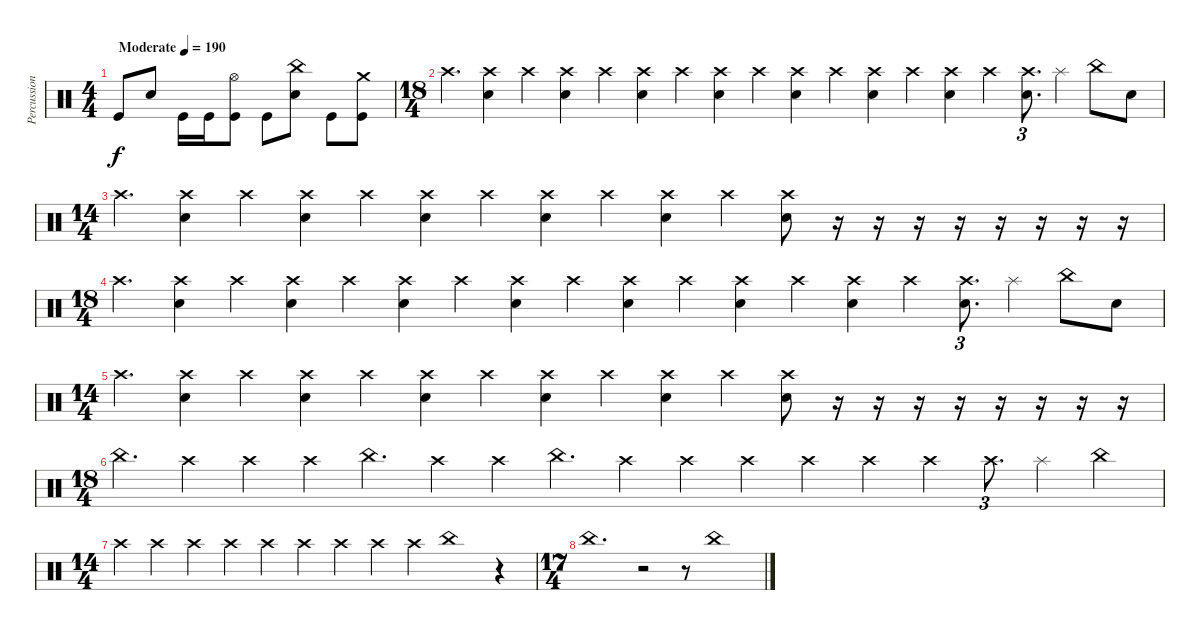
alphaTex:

\track ("Percussion" "Percussion") {instrument percussion}
\staff {score}
\articulation defaults
\ts (4 4)
\tempo (190 "Moderate")
\clef neutral
\ks c "Kick (hit)".8{dy f} "Electric Snare (hit)".8 "Kick (hit)".16 "Kick (hit)".16
("Hi-Hat (open)" "Kick (hit)").8 "Kick (hit)".8 ("China (hit)" "Electric Snare (hit)").8 "Kick (hit)".8 ("Crash medium (hit)" "Kick (hit)").8 |
\ts (18 4)
"Crash high (hit)".4{d} ("Crash high (hit)" "Electric Snare (hit)").4 "Crash high (hit)".4 ("Crash high (hit)" "Electric Snare (hit)").4 "Crash high (hit)".4 ("Crash high (hit)" "Electric Snare (hit)").4 "Crash high (hit)".4 ("Crash high (hit)" "Electric Snare (hit)").4 "Crash high (hit)".4 ("Crash high (hit)" "Electric Snare (hit)").4 "Crash high (hit)".4 ("Crash high (hit)" "Electric Snare (hit)").4 "Crash high (hit)".4 ("Crash high (hit)" "Electric Snare (hit)").4 "Crash high (hit)".4 ("Crash high (hit)" "Electric Snare (hit)").8{d tu (3 2)} "Splash (hit)".4 "China (hit)".8 "Electric Snare (hit)".8 |
\ts (14 4)
"Crash high (hit)".4{d} ("Crash high (hit)" "Electric Snare (hit)").4 "Crash high (hit)".4 ("Crash high (hit)" "Electric Snare (hit)").4 "Crash high (hit)".4 ("Crash high (hit)" "Electric Snare (hit)").4 "Crash high (hit)".4 ("Crash high (hit)" "Electric Snare (hit)").4 "Crash high (hit)".4 ("Crash high (hit)" "Electric Snare (hit)").4 "Crash high (hit)".4 ("Crash high (hit)" "Electric Snare (hit)").8 r.16 r.16 r.16 r.16 r.16 r.16 r.16 r.16 |
\ts (18 4)
"Crash high (hit)".4{d} ("Crash high (hit)" "Electric Snare (hit)").4 "Crash high (hit)".4 ("Crash high (hit)" "Electric Snare (hit)").4 "Crash high (hit)".4 ("Crash high (hit)" "Electric Snare (hit)").4 "Crash high (hit)".4 ("Crash high (hit)" "Electric Snare (hit)").4 "Crash high (hit)".4 ("Crash high (hit)" "Electric Snare (hit)").4 "Crash high (hit)".4 ("Crash high (hit)" "Electric Snare (hit)").4 "Crash high (hit)".4 ("Crash high (hit)" "Electric Snare (hit)").4 "Crash high (hit)".4 ("Crash high (hit)" "Electric Snare (hit)").8{d tu (3 2)} "Splash (hit)".4 "China (hit)".8 "Electric Snare (hit)".8 |
\ts (14 4)
"Crash high (hit)".4{d} ("Crash high (hit)" "Electric Snare (hit)").4 "Crash high (hit)".4 ("Crash high (hit)" "Electric Snare (hit)").4 "Crash high (hit)".4 ("Crash high (hit)" "Electric Snare (hit)").4 "Crash high (hit)".4 ("Crash high (hit)" "Electric Snare (hit)").4 "Crash high (hit)".4 ("Crash high (hit)" "Electric Snare (hit)").4 "Crash high (hit)".4 ("Crash high (hit)" "Electric Snare (hit)").8 r.16 r.16 r.16 r.16 r.16 r.16 r.16 r.16 |
\ts (18 4)
"China (hit)".4{d} "Crash high (hit)".4 "Crash high (hit)".4 "Crash high (hit)".4 "China (hit)".4{d} "Crash high (hit)".4 "Crash high (hit)".4 "China (hit)".4{d} "Crash high (hit)".4 "Crash high (hit)".4 "Crash high (hit)".4 "Crash high (hit)".4 "Crash high (hit)".4 "Crash high (hit)".4 "Crash high (hit)".8{d tu (3 2)} "Splash (hit)".4 "China (hit)".4 |
\ts (14 4)
"Crash high (hit)".4 "Crash high (hit)".4 "Crash high (hit)".4 "Crash high (hit)".4 "Crash high (hit)".4 "Crash high (hit)".4 "Crash high (hit)".4 "Crash high (hit)".4 "Crash high (hit)".4 "China (hit)".1 r.4 |
\ts (17 4)
"China (hit)".1{d} r.2 r.8 "China (hit)".1
